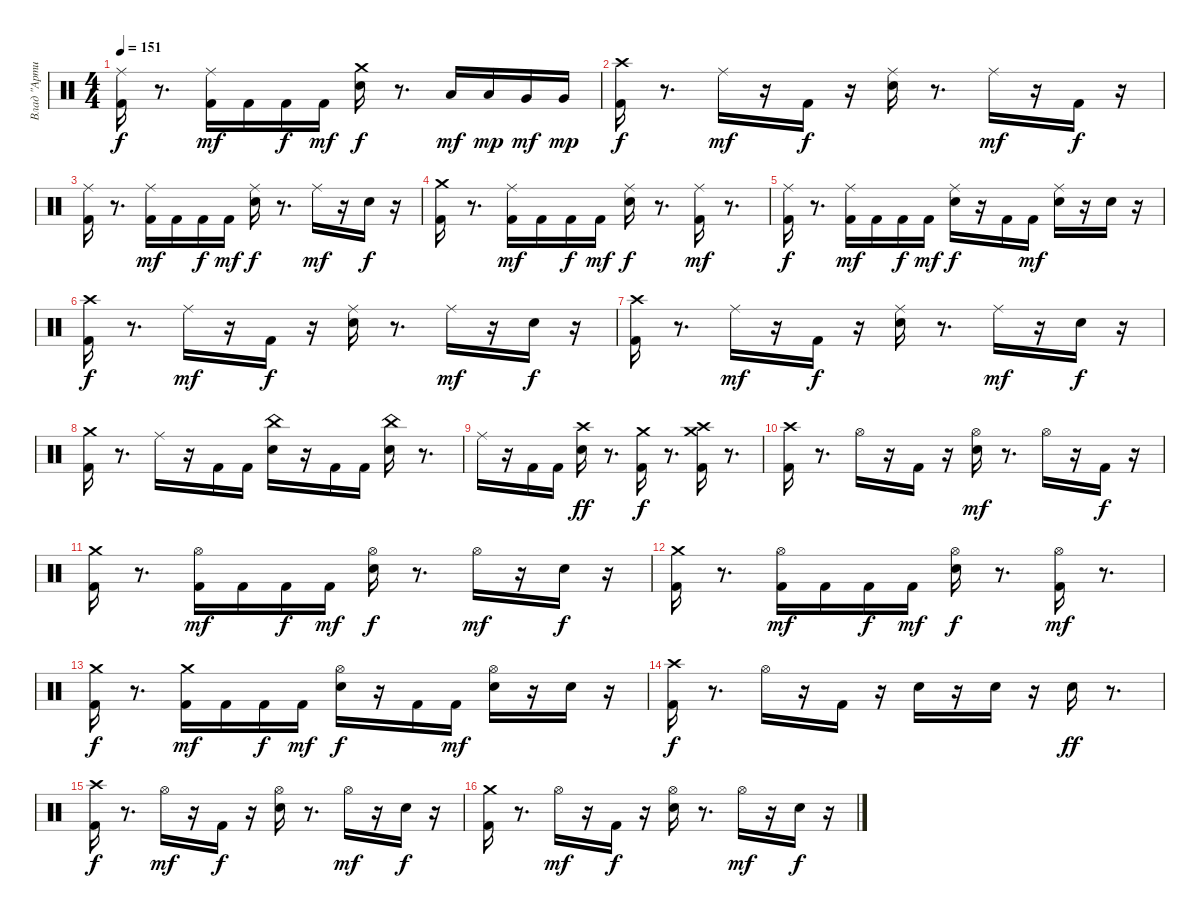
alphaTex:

\track ("Влад \"Артист\"" "Влад \"Арти") {instrument percussion}
\staff {score}
\articulation defaults
\ts (4 4)
\tempo 151
\clef neutral
\ks c
("Ride (middle)" "Kick (hit) 2").16{dy f} r.8{d} ("Kick (hit) 2" "Ride (middle)").16{dy mf} "Kick (hit) 2".16 "Kick (hit) 2".16{dy f} "Kick (hit) 2".16{dy mf} ("Snare (hit) 2" "Crash medium (hit)").16{dy f} r.8{d} "Low Tom (hit)".16{dy mf} "Low Tom (hit)".16{dy mp} "Very Low Tom (hit)".16{dy mf} "Very Low Tom (hit)".16{dy mp} |
("Crash high (hit)" "Kick (hit) 2").16{dy f} r.8{d} "Ride (middle)".16{dy mf} r.16 "Kick (hit) 2".16{dy f} r.16 ("Ride (middle)" "Snare (hit) 2").16 r.8{d} "Ride (middle)".16{dy mf} r.16 "Kick (hit) 2".16{dy f} r.16 |
("Ride (middle)" "Kick (hit) 2").16 r.8{d} ("Ride (middle)" "Kick (hit) 2").16{dy mf} "Kick (hit) 2".16 "Kick (hit) 2".16{dy f} "Kick (hit) 2".16{dy mf} ("Ride (middle)" "Snare (hit) 2").16{dy f} r.8{d} "Ride (middle)".16{dy mf} r.16 "Snare (hit) 2".16{dy f} r.16 |
("Crash medium (hit)" "Kick (hit) 2").16 r.8{d} ("Ride (middle)" "Kick (hit) 2").16{dy mf} "Kick (hit) 2".16 "Kick (hit) 2".16{dy f} "Kick (hit) 2".16{dy mf} ("Ride (middle)" "Snare (hit) 2").16{dy f} r.8{d} ("Ride (middle)" "Kick (hit) 2").16{dy mf} r.8{d} |
("Ride (middle)" "Kick (hit) 2").16{dy f} r.8{d} ("Ride (middle)" "Kick (hit) 2").16{dy mf} "Kick (hit) 2".16 "Kick (hit) 2".16{dy f} "Kick (hit) 2".16{dy mf} ("Ride (middle)" "Snare (hit) 2").16{dy f} r.16 "Kick (hit) 2".16 "Kick (hit) 2".16{dy mf} ("Ride (middle)" "Snare (hit) 2").16 r.16 "Snare (hit) 2".16 r.16 |
("Crash high (hit)" "Kick (hit) 2").16{dy f} r.8{d} "Ride (middle)".16{dy mf} r.16 "Kick (hit) 2".16{dy f} r.16 ("Ride (middle)" "Snare (hit) 2").16 r.8{d} "Ride (middle)".16{dy mf} r.16 "Snare (hit) 2".16{dy f} r.16 |
("Crash high (hit)" "Kick (hit) 2").16 r.8{d} "Ride (middle)".16{dy mf} r.16 "Kick (hit) 2".16{dy f} r.16 ("Ride (middle)" "Snare (hit) 2").16 r.8{d} "Ride (middle)".16{dy mf} r.16 "Snare (hit) 2".16{dy f} r.16 |
("Crash medium (hit)" "Kick (hit) 2").16 r.8{d} "Ride (middle)".16 r.16 "Kick (hit) 2".16 "Kick (hit) 2".16 ("China (hit)" "Snare (hit) 2").16 r.16 "Kick (hit) 2".16 "Kick (hit) 2".16 ("China (hit)" "Snare (hit) 2").16 r.8{d} |
"Ride (middle)".16 r.16 "Kick (hit) 2".16 "Kick (hit) 2".16 ("Snare (hit) 2" "Crash high (hit)").16{dy ff} r.8{d} ("Kick (hit) 2" "Crash medium (hit)").16{dy f} r.8{d} ("Crash medium (hit)" "Crash high (hit)" "Kick (hit) 2").16 r.8{d} |
("Crash high (hit)" "Kick (hit) 2").16 r.8{d} "Hi-Hat (open)".16 r.16 "Kick (hit) 2".16 r.16 ("Snare (hit) 2" "Hi-Hat (open)").16{dy mf} r.8{d} "Hi-Hat (open)".16 r.16 "Kick (hit) 2".16{dy f} r.16 |
("Kick (hit) 2" "Crash medium (hit)").16 r.8{d} ("Hi-Hat (open)" "Kick (hit) 2").16{dy mf} "Kick (hit) 2".16 "Kick (hit) 2".16{dy f} "Kick (hit) 2".16{dy mf} ("Hi-Hat (open)" "Snare (hit) 2").16{dy f} r.8{d} "Hi-Hat (open)".16{dy mf} r.16 "Snare (hit) 2".16{dy f} r.16 |
("Crash medium (hit)" "Kick (hit) 2").16 r.8{d} ("Hi-Hat (open)" "Kick (hit) 2").16{dy mf} "Kick (hit) 2".16 "Kick (hit) 2".16{dy f} "Kick (hit) 2".16{dy mf} ("Hi-Hat (open)" "Snare (hit) 2").16{dy f} r.8{d} ("Kick (hit) 2" "Hi-Hat (open)").16{dy mf} r.8{d} |
("Kick (hit) 2" "Crash medium (hit)").16{dy f} r.8{d} ("Crash medium (hit)" "Kick (hit) 2").16{dy mf} "Kick (hit) 2".16 "Kick (hit) 2".16{dy f} "Kick (hit) 2".16{dy mf} ("Hi-Hat (open)" "Snare (hit) 2").16{dy f} r.16 "Kick (hit) 2".16 "Kick (hit) 2".16{dy mf} ("Hi-Hat (open)" "Snare (hit) 2").16 r.16 "Snare (hit) 2".16 r.16 |
("Crash high (hit)" "Kick (hit) 2").16{dy f} r.8{d} "Hi-Hat (open)".16 r.16 "Kick (hit) 2".16 r.16 "Snare (hit) 2".16 r.16 "Snare (hit) 2".16 r.16 "Snare (hit) 2".16{dy ff} r.8{d} |
("Crash high (hit)" "Kick (hit) 2").16{dy f} r.8{d} "Hi-Hat (open)".16{dy mf} r.16 "Kick (hit) 2".16{dy f} r.16 ("Snare (hit) 2" "Hi-Hat (open)").16 r.8{d} "Hi-Hat (open)".16{dy mf} r.16 "Snare (hit) 2".16{dy f} r.16 |
("Crash medium (hit)" "Kick (hit) 2").16 r.8{d} "Hi-Hat (open)".16{dy mf} r.16 "Kick (hit) 2".16{dy f} r.16 ("Hi-Hat (open)" "Snare (hit) 2").16 r.8{d} "Hi-Hat (open)".16{dy mf} r.16 "Snare (hit) 2".16{dy f} r.16
